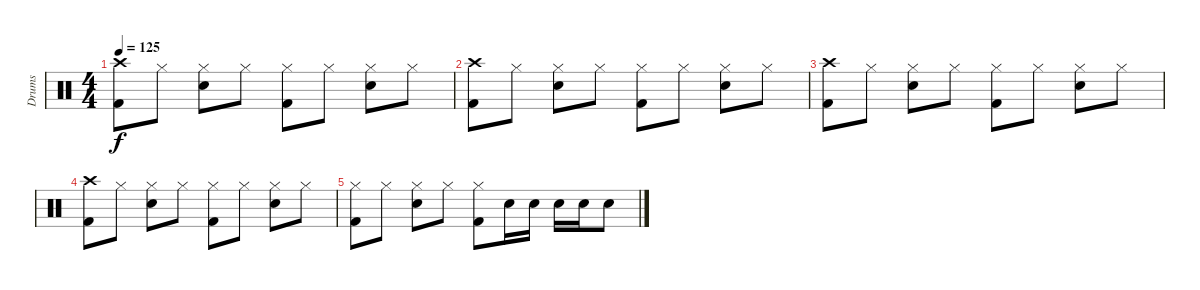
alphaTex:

\track ("Drums" "Drums") {instrument percussion}
\staff {score}
\articulation defaults
\ts (4 4)
\tempo 125
\clef neutral
\ks c
("Crash high (hit)" "Kick (hit) 2").8{dy f} "Hi-Hat (closed)".8 ("Hi-Hat (closed)" "Electric Snare (hit)").8 "Hi-Hat (closed)".8 ("Hi-Hat (closed)" "Kick (hit) 2").8 "Hi-Hat (closed)".8 ("Hi-Hat (closed)" "Electric Snare (hit)").8 "Hi-Hat (closed)".8 |
("Crash high (hit)" "Kick (hit) 2").8 "Hi-Hat (closed)".8 ("Hi-Hat (closed)" "Electric Snare (hit)").8 "Hi-Hat (closed)".8 ("Hi-Hat (closed)" "Kick (hit) 2").8 "Hi-Hat (closed)".8 ("Hi-Hat (closed)" "Electric Snare (hit)").8 "Hi-Hat (closed)".8 |
("Crash high (hit)" "Kick (hit) 2").8 "Hi-Hat (closed)".8 ("Hi-Hat (closed)" "Electric Snare (hit)").8 "Hi-Hat (closed)".8 ("Hi-Hat (closed)" "Kick (hit) 2").8 "Hi-Hat (closed)".8 ("Hi-Hat (closed)" "Electric Snare (hit)").8 "Hi-Hat (closed)".8 |
("Crash high (hit)" "Kick (hit) 2").8 "Hi-Hat (closed)".8 ("Hi-Hat (closed)" "Electric Snare (hit)").8 "Hi-Hat (closed)".8 ("Hi-Hat (closed)" "Kick (hit) 2").8 "Hi-Hat (closed)".8 ("Hi-Hat (closed)" "Electric Snare (hit)").8 "Hi-Hat (closed)".8 |
("Hi-Hat (closed)" "Kick (hit) 2").8 "Hi-Hat (closed)".8 ("Hi-Hat (closed)" "Electric Snare (hit)").8 "Hi-Hat (closed)".8 ("Hi-Hat (closed)" "Kick (hit) 2").8 "Electric Snare (hit)".16 "Electric Snare (hit)".16 "Electric Snare (hit)".16 "Electric Snare (hit)".16 "Electric Snare (hit)".8
